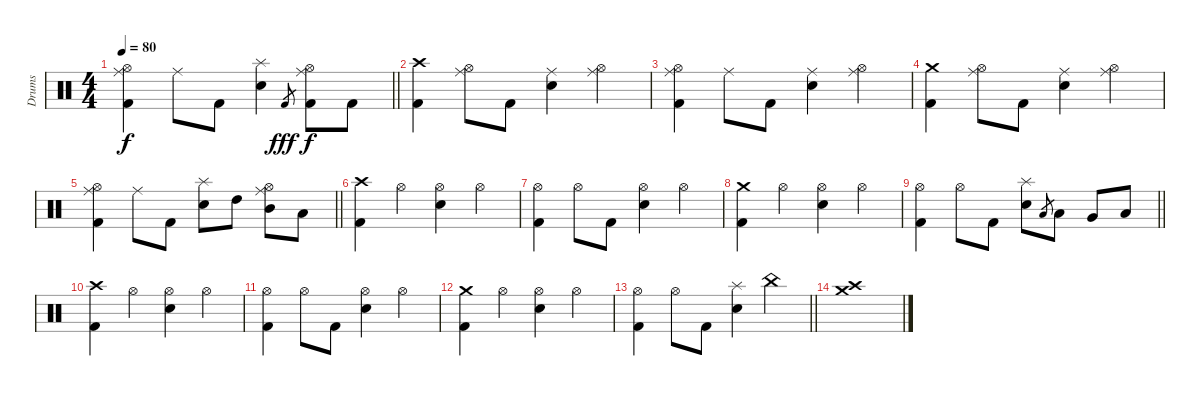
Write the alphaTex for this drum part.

\track ("Drums" "Drums") {instrument percussion}
\staff {score}
\articulation defaults
\ts (4 4)
\tempo 80
\clef neutral
\barLineRight lightlight
\ks c
("Kick (hit) 2" "Ride (middle)" "Hi-Hat (open)").4{dy f} "Ride (middle)".8 "Kick (hit) 2".8 ("Electric Snare (hit)" "Splash (hit)").4 "Kick (hit) 2".8{gr dy fff} ("Kick (hit) 2" "Ride (middle)" "Hi-Hat (open)").8{dy f} "Kick (hit) 2".8 |
("Kick (hit) 2" "Crash high (hit)").4 ("Ride (middle)" "Hi-Hat (open)").8 "Kick (hit) 2".8 ("Electric Snare (hit)" "Ride (middle)").4 ("Ride (middle)" "Hi-Hat (open)").4 |
("Kick (hit) 2" "Ride (middle)" "Hi-Hat (open)").4 "Ride (middle)".8 "Kick (hit) 2".8 ("Electric Snare (hit)" "Ride (middle)").4 ("Ride (middle)" "Hi-Hat (open)").4 |
("Kick (hit) 2" "Crash medium (hit)").4 ("Ride (middle)" "Hi-Hat (open)").8 "Kick (hit) 2".8 ("Electric Snare (hit)" "Ride (middle)").4 ("Ride (middle)" "Hi-Hat (open)").4 |
\barLineRight lightlight
("Kick (hit) 2" "Ride (middle)" "Hi-Hat (open)").4 "Ride (middle)".8 "Kick (hit) 2".8 ("Electric Snare (hit)" "Splash (hit)").8 "High Tom (hit)".8 ("Mid Tom (hit)" "Ride (middle)" "Hi-Hat (open)").8 "Low Tom (hit)".8 |
("Kick (hit) 2" "Crash high (hit)").4 "Hi-Hat (open)".4 ("Electric Snare (hit)" "Hi-Hat (open)").4 "Hi-Hat (open)".4 |
("Kick (hit) 2" "Hi-Hat (open)").4 "Hi-Hat (open)".8 "Kick (hit) 2".8 ("Electric Snare (hit)" "Hi-Hat (open)").4 "Hi-Hat (open)".4 |
("Kick (hit) 2" "Crash medium (hit)").4 "Hi-Hat (open)".4 ("Electric Snare (hit)" "Hi-Hat (open)").4 "Hi-Hat (open)".4 |
\barLineRight lightlight
("Kick (hit) 2" "Hi-Hat (open)").4 "Hi-Hat (open)".8 "Kick (hit) 2".8 ("Electric Snare (hit)" "Splash (hit)").8 "Low Tom (hit)".8{gr} "Low Tom (hit)".8 "Very Low Tom (hit)".8 "Low Floor Tom (hit)".8 |
("Kick (hit) 2" "Crash high (hit)").4 "Hi-Hat (open)".4 ("Electric Snare (hit)" "Hi-Hat (open)").4 "Hi-Hat (open)".4 |
("Kick (hit) 2" "Hi-Hat (open)").4 "Hi-Hat (open)".8 "Kick (hit) 2".8 ("Electric Snare (hit)" "Hi-Hat (open)").4 "Hi-Hat (open)".4 |
("Kick (hit) 2" "Crash medium (hit)").4 "Hi-Hat (open)".4 ("Electric Snare (hit)" "Hi-Hat (open)").4 "Hi-Hat (open)".4 |
\barLineRight lightlight
("Kick (hit) 2" "Hi-Hat (open)").4 "Hi-Hat (open)".8 "Kick (hit) 2".8 ("Electric Snare (hit)" "Splash (hit)").4 "China (hit)".4 |
("Crash high (hit)" "Crash medium (hit)").1
